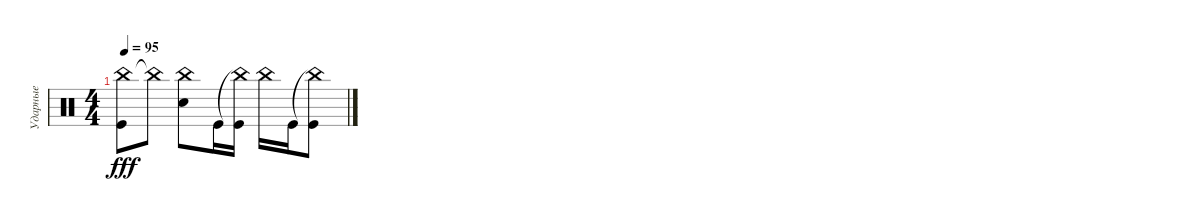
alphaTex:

\track ("Ударные" "Ударные") {instrument percussion}
\staff {score}
\articulation defaults
\ts (4 4)
\tempo 95
\clef neutral
\ks c
("China (hit)" "Kick (hit)").8{dy fff} "China (hit)"{t}.8 ("China (hit)" "Snare (hit) 2").8 "Kick (hit)".16 ("China (hit)"{t} "Kick (hit)").16 "China (hit)".16 "Kick (hit)".16 ("China (hit)"{t} "Kick (hit)").8
